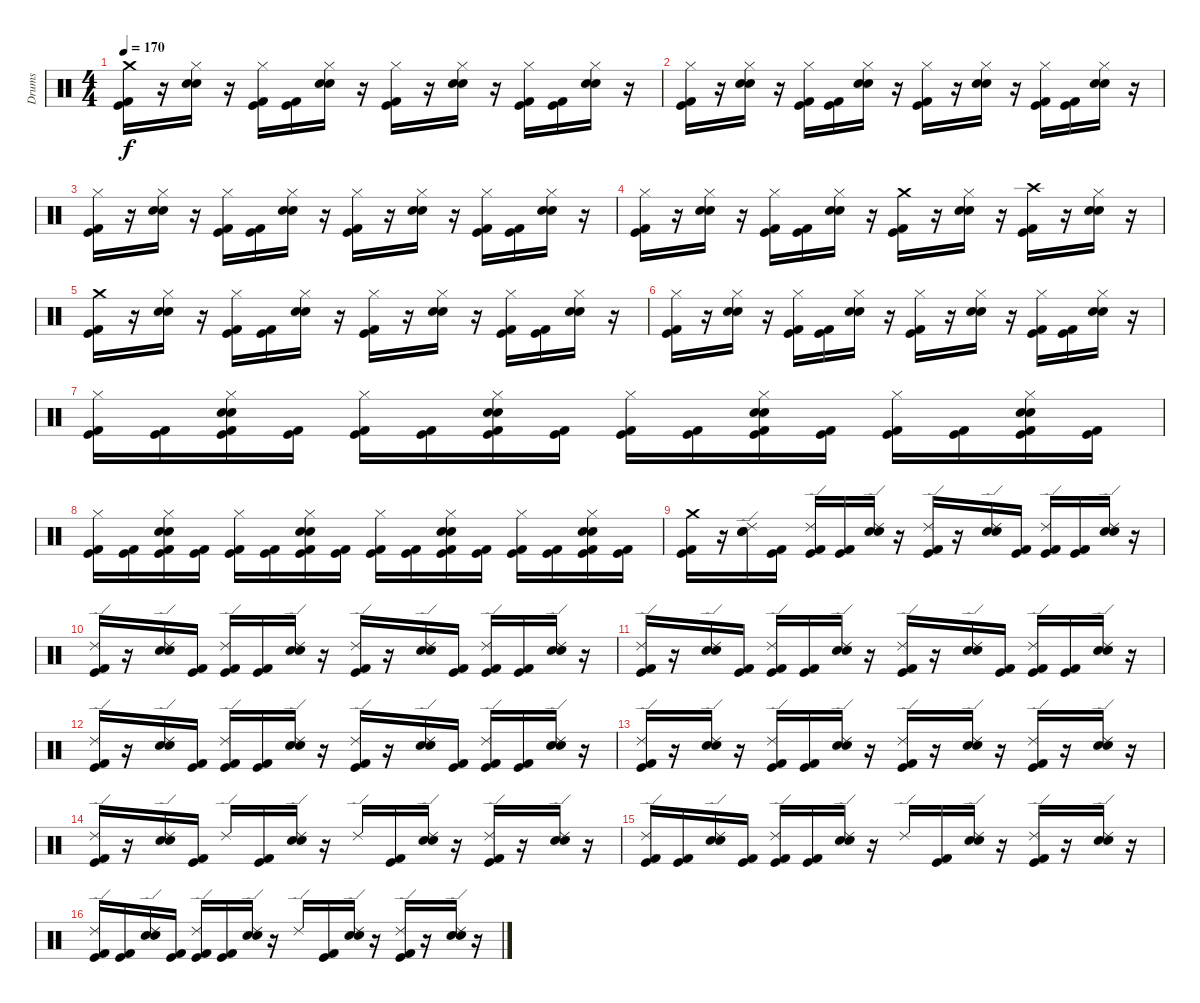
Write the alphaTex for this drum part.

\track ("Drums" "Drums") {instrument percussion}
\staff {score}
\articulation defaults
\ts (4 4)
\tempo 170
\clef neutral
\ks c
("Crash medium (hit)" "Kick (hit) 2" "Kick (hit)").16{dy f} r.16 ("Hi-Hat (closed)" "Electric Snare (hit)" "Snare (hit) 2").16 r.16 ("Kick (hit) 2" "Kick (hit)" "Hi-Hat (closed)").16 ("Kick (hit) 2" "Kick (hit)").16 ("Electric Snare (hit)" "Snare (hit) 2" "Hi-Hat (closed)").16 r.16 ("Kick (hit) 2" "Kick (hit)" "Hi-Hat (closed)").16 r.16 ("Electric Snare (hit)" "Snare (hit) 2" "Hi-Hat (closed)").16 r.16 ("Kick (hit) 2" "Kick (hit)" "Hi-Hat (closed)").16 ("Kick (hit) 2" "Kick (hit)").16 ("Electric Snare (hit)" "Snare (hit) 2" "Hi-Hat (closed)").16 r.16 |
("Hi-Hat (closed)" "Kick (hit) 2" "Kick (hit)").16 r.16 ("Hi-Hat (closed)" "Electric Snare (hit)" "Snare (hit) 2").16 r.16 ("Kick (hit) 2" "Kick (hit)" "Hi-Hat (closed)").16 ("Kick (hit) 2" "Kick (hit)").16 ("Electric Snare (hit)" "Snare (hit) 2" "Hi-Hat (closed)").16 r.16 ("Kick (hit) 2" "Kick (hit)" "Hi-Hat (closed)").16 r.16 ("Electric Snare (hit)" "Snare (hit) 2" "Hi-Hat (closed)").16 r.16 ("Kick (hit) 2" "Kick (hit)" "Hi-Hat (closed)").16 ("Kick (hit) 2" "Kick (hit)").16 ("Electric Snare (hit)" "Snare (hit) 2" "Hi-Hat (closed)").16 r.16 |
("Hi-Hat (closed)" "Kick (hit) 2" "Kick (hit)").16 r.16 ("Hi-Hat (closed)" "Electric Snare (hit)" "Snare (hit) 2").16 r.16 ("Kick (hit) 2" "Kick (hit)" "Hi-Hat (closed)").16 ("Kick (hit) 2" "Kick (hit)").16 ("Electric Snare (hit)" "Snare (hit) 2" "Hi-Hat (closed)").16 r.16 ("Kick (hit) 2" "Kick (hit)" "Hi-Hat (closed)").16 r.16 ("Electric Snare (hit)" "Snare (hit) 2" "Hi-Hat (closed)").16 r.16 ("Kick (hit) 2" "Kick (hit)" "Hi-Hat (closed)").16 ("Kick (hit) 2" "Kick (hit)").16 ("Electric Snare (hit)" "Snare (hit) 2" "Hi-Hat (closed)").16 r.16 |
("Hi-Hat (closed)" "Kick (hit) 2" "Kick (hit)").16 r.16 ("Hi-Hat (closed)" "Electric Snare (hit)" "Snare (hit) 2").16 r.16 ("Kick (hit) 2" "Kick (hit)" "Hi-Hat (closed)").16 ("Kick (hit) 2" "Kick (hit)").16 ("Electric Snare (hit)" "Snare (hit) 2" "Hi-Hat (closed)").16 r.16 ("Crash medium (hit)" "Kick (hit) 2" "Kick (hit)").16 r.16 ("Electric Snare (hit)" "Snare (hit) 2" "Hi-Hat (closed)").16 r.16 ("Crash high (hit)" "Kick (hit) 2" "Kick (hit)").16 r.16 ("Electric Snare (hit)" "Snare (hit) 2" "Hi-Hat (closed)").16 r.16 |
("Crash medium (hit)" "Kick (hit) 2" "Kick (hit)").16 r.16 ("Hi-Hat (closed)" "Electric Snare (hit)" "Snare (hit) 2").16 r.16 ("Kick (hit) 2" "Kick (hit)" "Hi-Hat (closed)").16 ("Kick (hit) 2" "Kick (hit)").16 ("Electric Snare (hit)" "Snare (hit) 2" "Hi-Hat (closed)").16 r.16 ("Kick (hit) 2" "Kick (hit)" "Hi-Hat (closed)").16 r.16 ("Electric Snare (hit)" "Snare (hit) 2" "Hi-Hat (closed)").16 r.16 ("Kick (hit) 2" "Kick (hit)" "Hi-Hat (closed)").16 ("Kick (hit) 2" "Kick (hit)").16 ("Electric Snare (hit)" "Snare (hit) 2" "Hi-Hat (closed)").16 r.16 |
("Hi-Hat (closed)" "Kick (hit) 2" "Kick (hit)").16 r.16 ("Hi-Hat (closed)" "Electric Snare (hit)" "Snare (hit) 2").16 r.16 ("Kick (hit) 2" "Kick (hit)" "Hi-Hat (closed)").16 ("Kick (hit) 2" "Kick (hit)").16 ("Electric Snare (hit)" "Snare (hit) 2" "Hi-Hat (closed)").16 r.16 ("Kick (hit) 2" "Kick (hit)" "Hi-Hat (closed)").16 r.16 ("Electric Snare (hit)" "Snare (hit) 2" "Hi-Hat (closed)").16 r.16 ("Kick (hit) 2" "Kick (hit)" "Hi-Hat (closed)").16 ("Kick (hit) 2" "Kick (hit)").16 ("Electric Snare (hit)" "Snare (hit) 2" "Hi-Hat (closed)").16 r.16 |
("Kick (hit) 2" "Kick (hit)" "Hi-Hat (closed)").16 ("Kick (hit) 2" "Kick (hit)").16 ("Kick (hit) 2" "Kick (hit)" "Hi-Hat (closed)" "Electric Snare (hit)" "Snare (hit) 2").16 ("Kick (hit) 2" "Kick (hit)").16 ("Kick (hit) 2" "Kick (hit)" "Hi-Hat (closed)").16 ("Kick (hit) 2" "Kick (hit)").16 ("Hi-Hat (closed)" "Kick (hit) 2" "Kick (hit)" "Electric Snare (hit)" "Snare (hit) 2").16 ("Kick (hit) 2" "Kick (hit)").16 ("Kick (hit) 2" "Kick (hit)" "Hi-Hat (closed)").16 ("Kick (hit) 2" "Kick (hit)").16 ("Hi-Hat (closed)" "Kick (hit) 2" "Kick (hit)" "Electric Snare (hit)" "Snare (hit) 2").16 ("Kick (hit) 2" "Kick (hit)").16 ("Kick (hit) 2" "Kick (hit)" "Hi-Hat (closed)").16 ("Kick (hit) 2" "Kick (hit)").16 ("Kick (hit) 2" "Kick (hit)" "Hi-Hat (closed)" "Electric Snare (hit)" "Snare (hit) 2").16 ("Kick (hit) 2" "Kick (hit)").16 |
("Hi-Hat (closed)" "Kick (hit) 2" "Kick (hit)").16 ("Kick (hit) 2" "Kick (hit)").16 ("Electric Snare (hit)" "Snare (hit) 2" "Kick (hit) 2" "Kick (hit)" "Hi-Hat (closed)").16 ("Kick (hit) 2" "Kick (hit)").16 ("Hi-Hat (closed)" "Kick (hit) 2" "Kick (hit)").16 ("Kick (hit) 2" "Kick (hit)").16 ("Electric Snare (hit)" "Snare (hit) 2" "Kick (hit) 2" "Kick (hit)" "Hi-Hat (closed)").16 ("Kick (hit) 2" "Kick (hit)").16 ("Hi-Hat (closed)" "Kick (hit) 2" "Kick (hit)").16 ("Kick (hit) 2" "Kick (hit)").16 ("Kick (hit) 2" "Hi-Hat (closed)" "Kick (hit)" "Electric Snare (hit)" "Snare (hit) 2").16 ("Kick (hit) 2" "Kick (hit)").16 ("Hi-Hat (closed)" "Kick (hit) 2" "Kick (hit)").16 ("Kick (hit) 2" "Kick (hit)").16 ("Electric Snare (hit)" "Snare (hit) 2" "Kick (hit) 2" "Hi-Hat (closed)" "Kick (hit)").16 ("Kick (hit) 2" "Kick (hit)").16 |
("Crash medium (hit)" "Kick (hit) 2" "Kick (hit)").16 r.16 ("Ride (edge) 2" "Electric Snare (hit)" "Snare (hit) 2").16 ("Kick (hit) 2" "Kick (hit)").16 ("Ride (edge) 2" "Kick (hit) 2" "Kick (hit)").16 ("Kick (hit) 2" "Kick (hit)").16 ("Ride (edge) 2" "Electric Snare (hit)" "Snare (hit) 2").16 r.16 ("Ride (edge) 2" "Kick (hit) 2" "Kick (hit)").16 r.16 ("Ride (edge) 2" "Electric Snare (hit)" "Snare (hit) 2").16 ("Kick (hit) 2" "Kick (hit)").16 ("Ride (edge) 2" "Kick (hit) 2" "Kick (hit)").16 ("Kick (hit) 2" "Kick (hit)").16 ("Ride (edge) 2" "Electric Snare (hit)" "Snare (hit) 2").16 r.16 |
("Ride (edge) 2" "Kick (hit) 2" "Kick (hit)").16 r.16 ("Ride (edge) 2" "Electric Snare (hit)" "Snare (hit) 2").16 ("Kick (hit) 2" "Kick (hit)").16 ("Ride (edge) 2" "Kick (hit) 2" "Kick (hit)").16 ("Kick (hit) 2" "Kick (hit)").16 ("Ride (edge) 2" "Electric Snare (hit)" "Snare (hit) 2").16 r.16 ("Ride (edge) 2" "Kick (hit) 2" "Kick (hit)").16 r.16 ("Ride (edge) 2" "Electric Snare (hit)" "Snare (hit) 2").16 ("Kick (hit) 2" "Kick (hit)").16 ("Ride (edge) 2" "Kick (hit) 2" "Kick (hit)").16 ("Kick (hit) 2" "Kick (hit)").16 ("Ride (edge) 2" "Electric Snare (hit)" "Snare (hit) 2").16 r.16 |
("Ride (edge) 2" "Kick (hit) 2" "Kick (hit)").16 r.16 ("Ride (edge) 2" "Electric Snare (hit)" "Snare (hit) 2").16 ("Kick (hit) 2" "Kick (hit)").16 ("Ride (edge) 2" "Kick (hit) 2" "Kick (hit)").16 ("Kick (hit) 2" "Kick (hit)").16 ("Ride (edge) 2" "Electric Snare (hit)" "Snare (hit) 2").16 r.16 ("Ride (edge) 2" "Kick (hit) 2" "Kick (hit)").16 r.16 ("Ride (edge) 2" "Electric Snare (hit)" "Snare (hit) 2").16 ("Kick (hit) 2" "Kick (hit)").16 ("Ride (edge) 2" "Kick (hit) 2" "Kick (hit)").16 ("Kick (hit) 2" "Kick (hit)").16 ("Ride (edge) 2" "Electric Snare (hit)" "Snare (hit) 2").16 r.16 |
("Ride (edge) 2" "Kick (hit) 2" "Kick (hit)").16 r.16 ("Ride (edge) 2" "Electric Snare (hit)" "Snare (hit) 2").16 ("Kick (hit) 2" "Kick (hit)").16 ("Ride (edge) 2" "Kick (hit) 2" "Kick (hit)").16 ("Kick (hit) 2" "Kick (hit)").16 ("Ride (edge) 2" "Electric Snare (hit)" "Snare (hit) 2").16 r.16 ("Ride (edge) 2" "Kick (hit) 2" "Kick (hit)").16 r.16 ("Ride (edge) 2" "Electric Snare (hit)" "Snare (hit) 2").16 ("Kick (hit) 2" "Kick (hit)").16 ("Ride (edge) 2" "Kick (hit) 2" "Kick (hit)").16 ("Kick (hit) 2" "Kick (hit)").16 ("Ride (edge) 2" "Electric Snare (hit)" "Snare (hit) 2").16 r.16 |
("Kick (hit) 2" "Ride (edge) 2" "Kick (hit)").16 r.16 ("Electric Snare (hit)" "Snare (hit) 2" "Ride (edge) 2").16 r.16 ("Kick (hit) 2" "Kick (hit)" "Ride (edge) 2").16 ("Kick (hit) 2" "Kick (hit)").16 ("Electric Snare (hit)" "Snare (hit) 2" "Ride (edge) 2").16 r.16 ("Kick (hit) 2" "Kick (hit)" "Ride (edge) 2").16 r.16 ("Electric Snare (hit)" "Snare (hit) 2" "Ride (edge) 2").16 r.16 ("Kick (hit) 2" "Kick (hit)" "Ride (edge) 2").16 r.16 ("Electric Snare (hit)" "Snare (hit) 2" "Ride (edge) 2").16 r.16 |
("Ride (edge) 2" "Kick (hit) 2" "Kick (hit)").16 r.16 ("Ride (edge) 2" "Snare (hit) 2" "Electric Snare (hit)").16 ("Kick (hit) 2" "Kick (hit)").16 "Ride (edge) 2".16 ("Kick (hit) 2" "Kick (hit)").16 ("Ride (edge) 2" "Electric Snare (hit)" "Snare (hit) 2").16 r.16 "Ride (edge) 2".16 ("Kick (hit) 2" "Kick (hit)").16 ("Ride (edge) 2" "Electric Snare (hit)" "Snare (hit) 2").16 r.16 ("Ride (edge) 2" "Kick (hit) 2" "Kick (hit)").16 r.16 ("Ride (edge) 2" "Electric Snare (hit)" "Snare (hit) 2").16 r.16 |
("Ride (edge) 2" "Kick (hit) 2" "Kick (hit)").16 ("Kick (hit) 2" "Kick (hit)").16 ("Ride (edge) 2" "Electric Snare (hit)" "Snare (hit) 2").16 ("Kick (hit) 2" "Kick (hit)").16 ("Ride (edge) 2" "Kick (hit) 2" "Kick (hit)").16 ("Kick (hit) 2" "Kick (hit)").16 ("Ride (edge) 2" "Electric Snare (hit)" "Snare (hit) 2").16 r.16 "Ride (edge) 2".16 ("Kick (hit) 2" "Kick (hit)").16 ("Ride (edge) 2" "Electric Snare (hit)" "Snare (hit) 2").16 r.16 ("Ride (edge) 2" "Kick (hit) 2" "Kick (hit)").16 r.16 ("Ride (edge) 2" "Electric Snare (hit)" "Snare (hit) 2").16 r.16 |
("Ride (edge) 2" "Kick (hit) 2" "Kick (hit)").16 ("Kick (hit) 2" "Kick (hit)").16 ("Ride (edge) 2" "Electric Snare (hit)" "Snare (hit) 2").16 ("Kick (hit) 2" "Kick (hit)").16 ("Ride (edge) 2" "Kick (hit) 2" "Kick (hit)").16 ("Kick (hit) 2" "Kick (hit)").16 ("Ride (edge) 2" "Electric Snare (hit)" "Snare (hit) 2").16 r.16 "Ride (edge) 2".16 ("Kick (hit) 2" "Kick (hit)").16 ("Ride (edge) 2" "Electric Snare (hit)" "Snare (hit) 2").16 r.16 ("Ride (edge) 2" "Kick (hit) 2" "Kick (hit)").16 r.16 ("Ride (edge) 2" "Electric Snare (hit)" "Snare (hit) 2").16 r.16
